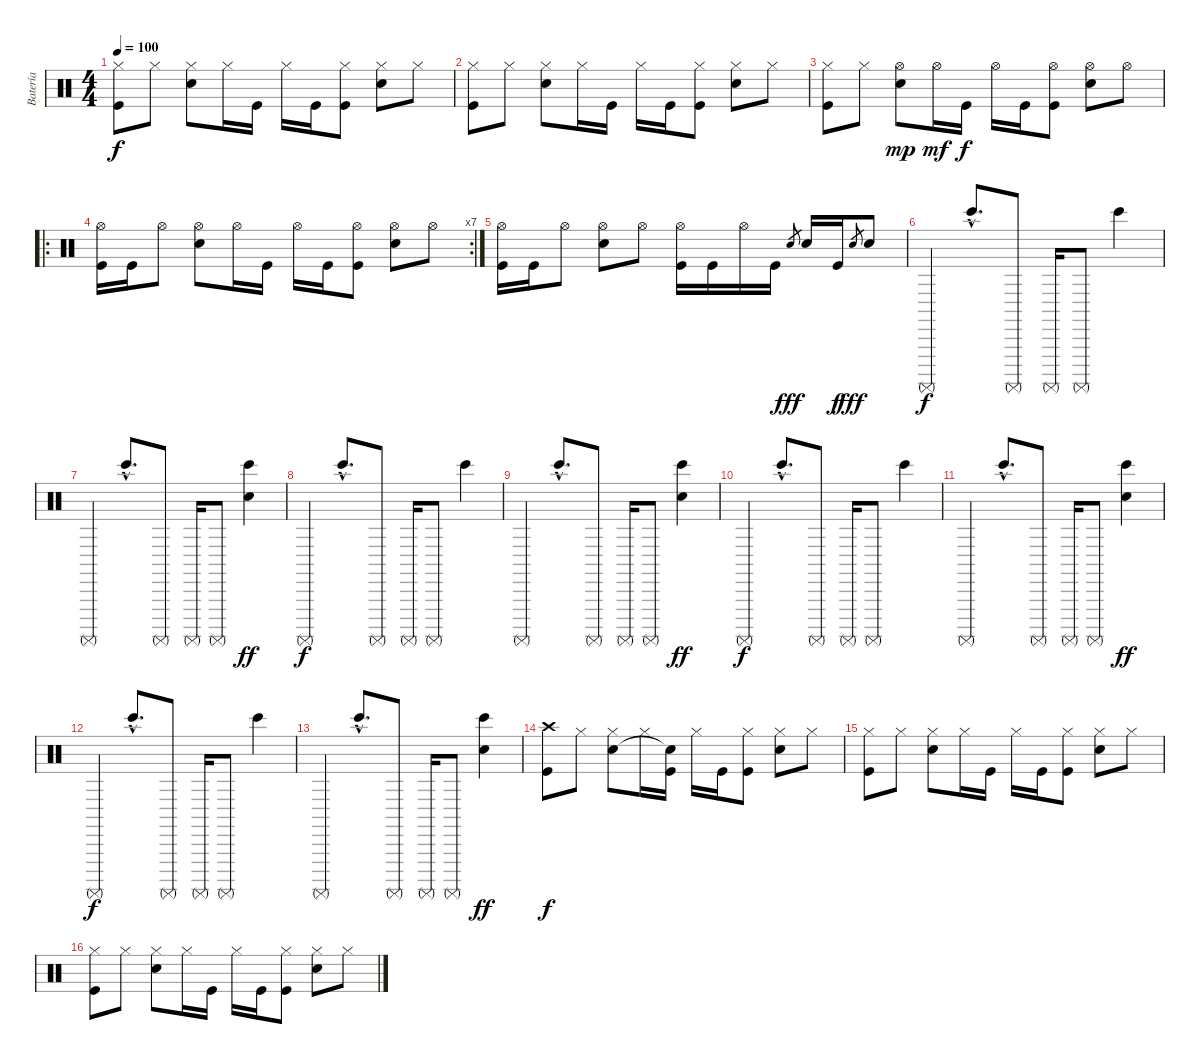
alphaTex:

\track ("Batería" "Batería") {instrument percussion}
\staff {score}
\articulation defaults
\ts (4 4)
\tempo 100
\clef neutral
\ks c
("Hi-Hat (closed)" "Kick (hit)").8{dy f} "Hi-Hat (closed)".8 ("Hi-Hat (closed)" "Snare (hit) 2").8 "Hi-Hat (closed)".16 "Kick (hit)".16 "Hi-Hat (closed)".16 "Kick (hit)".16 ("Hi-Hat (closed)" "Kick (hit)").8 ("Hi-Hat (closed)" "Snare (hit) 2").8 "Hi-Hat (closed)".8 |
("Hi-Hat (closed)" "Kick (hit)").8 "Hi-Hat (closed)".8 ("Hi-Hat (closed)" "Snare (hit) 2").8 "Hi-Hat (closed)".16 "Kick (hit)".16 "Hi-Hat (closed)".16 "Kick (hit)".16 ("Hi-Hat (closed)" "Kick (hit)").8 ("Hi-Hat (closed)" "Snare (hit) 2").8 "Hi-Hat (closed)".8 |
("Hi-Hat (closed)" "Kick (hit)").8 "Hi-Hat (closed)".8 ("Hi-Hat (open)" "Snare (hit) 2").8{dy mp} "Hi-Hat (open)".16{dy mf} "Kick (hit)".16{dy f} "Hi-Hat (open)".16 "Kick (hit)".16 ("Hi-Hat (open)" "Kick (hit)").8 ("Hi-Hat (open)" "Snare (hit) 2").8 "Hi-Hat (open)".8 |
\ro
\rc 7
("Hi-Hat (open)" "Kick (hit)").16 "Kick (hit)".16 "Hi-Hat (open)".8 ("Hi-Hat (open)" "Snare (hit) 2").8 "Hi-Hat (open)".16 "Kick (hit)".16 "Hi-Hat (open)".16 "Kick (hit)".16 ("Hi-Hat (open)" "Kick (hit)").8 ("Hi-Hat (open)" "Snare (hit) 2").8 "Hi-Hat (open)".8 |
("Hi-Hat (open)" "Kick (hit)").16 "Kick (hit)".16 "Hi-Hat (open)".8 ("Hi-Hat (open)" "Snare (hit) 2").8 "Hi-Hat (open)".8 ("Hi-Hat (open)" "Kick (hit)").16 "Kick (hit)".16 "Hi-Hat (open)".16 "Kick (hit)".16 "Snare (hit) 2".8{gr dy fff} "Snare (hit) 2".16 "Kick (hit)".16{dy f} "Snare (hit) 2".8{gr dy fff} "Snare (hit) 2".8 |
"Surdo (mute)".4{dy f} "Bongo High (hit)"{hac}.8{d} "Surdo (mute)".8 "Surdo (mute)".16 "Surdo (mute)".8 "Bongo High (hit)".4 |
"Surdo (mute)".4 "Bongo High (hit)"{hac}.8{d} "Surdo (mute)".8 "Surdo (mute)".16 "Surdo (mute)".8 ("Metronome (bell)" "Bongo High (hit)").4{dy ff} |
"Surdo (mute)".4{dy f} "Bongo High (hit)"{hac}.8{d} "Surdo (mute)".8 "Surdo (mute)".16 "Surdo (mute)".8 "Bongo High (hit)".4 |
"Surdo (mute)".4 "Bongo High (hit)"{hac}.8{d} "Surdo (mute)".8 "Surdo (mute)".16 "Surdo (mute)".8 ("Metronome (bell)" "Bongo High (hit)").4{dy ff} |
"Surdo (mute)".4{dy f} "Bongo High (hit)"{hac}.8{d} "Surdo (mute)".8 "Surdo (mute)".16 "Surdo (mute)".8 "Bongo High (hit)".4 |
"Surdo (mute)".4 "Bongo High (hit)"{hac}.8{d} "Surdo (mute)".8 "Surdo (mute)".16 "Surdo (mute)".8 ("Metronome (bell)" "Bongo High (hit)").4{dy ff} |
"Surdo (mute)".4{dy f} "Bongo High (hit)"{hac}.8{d} "Surdo (mute)".8 "Surdo (mute)".16 "Surdo (mute)".8 "Bongo High (hit)".4 |
"Surdo (mute)".4 "Bongo High (hit)"{hac}.8{d} "Surdo (mute)".8 "Surdo (mute)".16 "Surdo (mute)".8 ("Metronome (bell)" "Bongo High (hit)").4{dy ff} |
("Kick (hit)" "Crash high (hit)").8{dy f} "Hi-Hat (closed)".8 ("Hi-Hat (closed)" "Snare (hit) 2").8 "Hi-Hat (closed)".16 ("Kick (hit)" "Snare (hit)"{t}).16 "Hi-Hat (closed)".16 "Kick (hit)".16 ("Hi-Hat (closed)" "Kick (hit)").8 ("Hi-Hat (closed)" "Snare (hit) 2").8 "Hi-Hat (closed)".8 |
("Hi-Hat (closed)" "Kick (hit)").8 "Hi-Hat (closed)".8 ("Hi-Hat (closed)" "Snare (hit) 2").8 "Hi-Hat (closed)".16 "Kick (hit)".16 "Hi-Hat (closed)".16 "Kick (hit)".16 ("Hi-Hat (closed)" "Kick (hit)").8 ("Hi-Hat (closed)" "Snare (hit) 2").8 "Hi-Hat (closed)".8 |
("Hi-Hat (closed)" "Kick (hit)").8 "Hi-Hat (closed)".8 ("Hi-Hat (closed)" "Snare (hit) 2").8 "Hi-Hat (closed)".16 "Kick (hit)".16 "Hi-Hat (closed)".16 "Kick (hit)".16 ("Hi-Hat (closed)" "Kick (hit)").8 ("Hi-Hat (closed)" "Snare (hit) 2").8 "Hi-Hat (closed)".8
